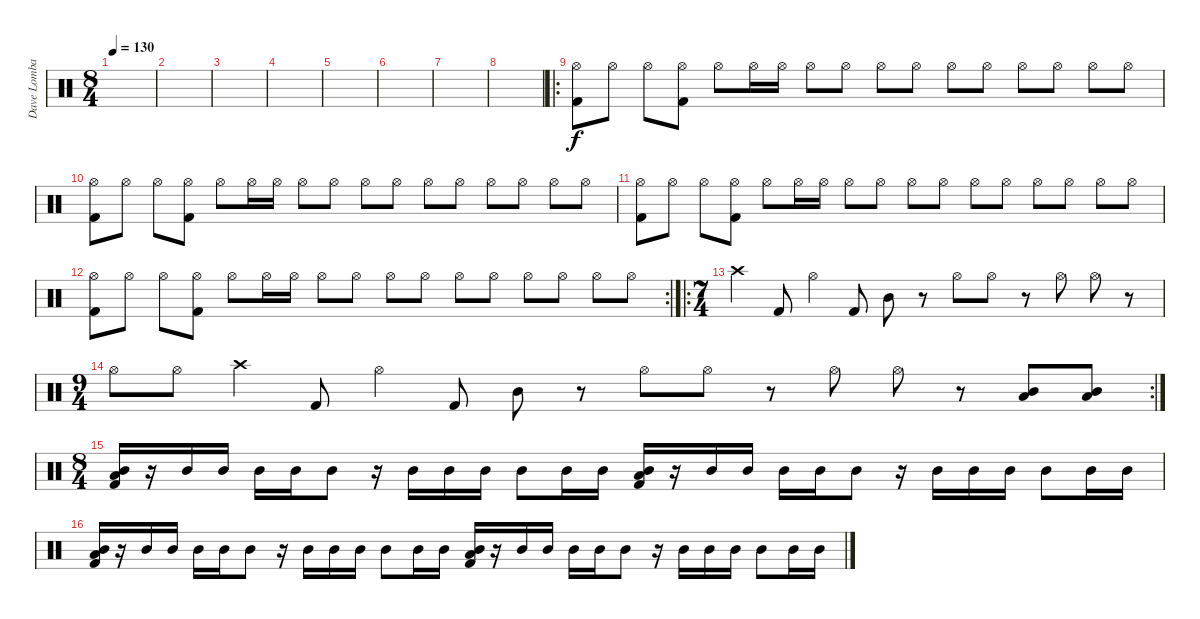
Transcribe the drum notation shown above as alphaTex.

\track ("Dave Lombardo" "Dave Lomba") {instrument percussion}
\staff {score}
\articulation defaults
\ts (8 4)
\tempo 130
\clef neutral
\ks c
|
|
|
|
|
|
|
|
\ro
("Kick (hit) 2" "Hi-Hat (open)").8 "Hi-Hat (open)".8 "Hi-Hat (open)".8 ("Kick (hit) 2" "Hi-Hat (open)").8 "Hi-Hat (open)".8 "Hi-Hat (open)".16 "Hi-Hat (open)".16 "Hi-Hat (open)".8 "Hi-Hat (open)".8 "Hi-Hat (open)".8 "Hi-Hat (open)".8 "Hi-Hat (open)".8 "Hi-Hat (open)".8 "Hi-Hat (open)".8 "Hi-Hat (open)".8 "Hi-Hat (open)".8 "Hi-Hat (open)".8 |
("Kick (hit) 2" "Hi-Hat (open)").8 "Hi-Hat (open)".8 "Hi-Hat (open)".8 ("Kick (hit) 2" "Hi-Hat (open)").8 "Hi-Hat (open)".8 "Hi-Hat (open)".16 "Hi-Hat (open)".16 "Hi-Hat (open)".8 "Hi-Hat (open)".8 "Hi-Hat (open)".8 "Hi-Hat (open)".8 "Hi-Hat (open)".8 "Hi-Hat (open)".8 "Hi-Hat (open)".8 "Hi-Hat (open)".8 "Hi-Hat (open)".8 "Hi-Hat (open)".8 |
("Kick (hit) 2" "Hi-Hat (open)").8 "Hi-Hat (open)".8 "Hi-Hat (open)".8 ("Kick (hit) 2" "Hi-Hat (open)").8 "Hi-Hat (open)".8 "Hi-Hat (open)".16 "Hi-Hat (open)".16 "Hi-Hat (open)".8 "Hi-Hat (open)".8 "Hi-Hat (open)".8 "Hi-Hat (open)".8 "Hi-Hat (open)".8 "Hi-Hat (open)".8 "Hi-Hat (open)".8 "Hi-Hat (open)".8 "Hi-Hat (open)".8 "Hi-Hat (open)".8 |
\rc 2
("Kick (hit) 2" "Hi-Hat (open)").8 "Hi-Hat (open)".8 "Hi-Hat (open)".8 ("Kick (hit) 2" "Hi-Hat (open)").8 "Hi-Hat (open)".8 "Hi-Hat (open)".16 "Hi-Hat (open)".16 "Hi-Hat (open)".8 "Hi-Hat (open)".8 "Hi-Hat (open)".8 "Hi-Hat (open)".8 "Hi-Hat (open)".8 "Hi-Hat (open)".8 "Hi-Hat (open)".8 "Hi-Hat (open)".8 "Hi-Hat (open)".8 "Hi-Hat (open)".8 |
\ro
\ts (7 4)
"Crash high (hit)".4 "Kick (hit) 2".8 "Hi-Hat (open)".4 "Kick (hit) 2".8 "Mid Tom (hit)".8 r.8 "Hi-Hat (open)".8 "Hi-Hat (open)".8 r.8 "Hi-Hat (open)".8 "Hi-Hat (open)".8 r.8 |
\rc 2
\ts (9 4)
"Hi-Hat (open)".8 "Hi-Hat (open)".8 "Crash high (hit)".4 "Kick (hit) 2".8 "Hi-Hat (open)".4 "Kick (hit) 2".8 "Mid Tom (hit)".8 r.8 "Hi-Hat (open)".8 "Hi-Hat (open)".8 r.8 "Hi-Hat (open)".8 "Hi-Hat (open)".8 r.8 ("Mid Tom (hit)" "Low Tom (hit)").8 ("Mid Tom (hit)" "Low Tom (hit)").8 |
\ts (8 4)
("Mid Tom (hit)" "Low Tom (hit)" "Kick (hit) 2").16 r.16 "Mid Tom (hit)".16 "Mid Tom (hit)".16 "Mid Tom (hit)".16 "Mid Tom (hit)".16 "Mid Tom (hit)".8 r.16 "Mid Tom (hit)".16 "Mid Tom (hit)".16 "Mid Tom (hit)".16 "Mid Tom (hit)".8 "Mid Tom (hit)".16 "Mid Tom (hit)".16 ("Mid Tom (hit)" "Low Tom (hit)" "Kick (hit) 2").16 r.16 "Mid Tom (hit)".16 "Mid Tom (hit)".16 "Mid Tom (hit)".16 "Mid Tom (hit)".16 "Mid Tom (hit)".8 r.16 "Mid Tom (hit)".16 "Mid Tom (hit)".16 "Mid Tom (hit)".16 "Mid Tom (hit)".8 "Mid Tom (hit)".16 "Mid Tom (hit)".16 |
("Mid Tom (hit)" "Low Tom (hit)" "Kick (hit) 2").16 r.16 "Mid Tom (hit)".16 "Mid Tom (hit)".16 "Mid Tom (hit)".16 "Mid Tom (hit)".16 "Mid Tom (hit)".8 r.16 "Mid Tom (hit)".16 "Mid Tom (hit)".16 "Mid Tom (hit)".16 "Mid Tom (hit)".8 "Mid Tom (hit)".16 "Mid Tom (hit)".16 ("Mid Tom (hit)" "Low Tom (hit)" "Kick (hit) 2").16 r.16 "Mid Tom (hit)".16 "Mid Tom (hit)".16 "Mid Tom (hit)".16 "Mid Tom (hit)".16 "Mid Tom (hit)".8 r.16 "Mid Tom (hit)".16 "Mid Tom (hit)".16 "Mid Tom (hit)".16 "Mid Tom (hit)".8 "Mid Tom (hit)".16 "Mid Tom (hit)".16
